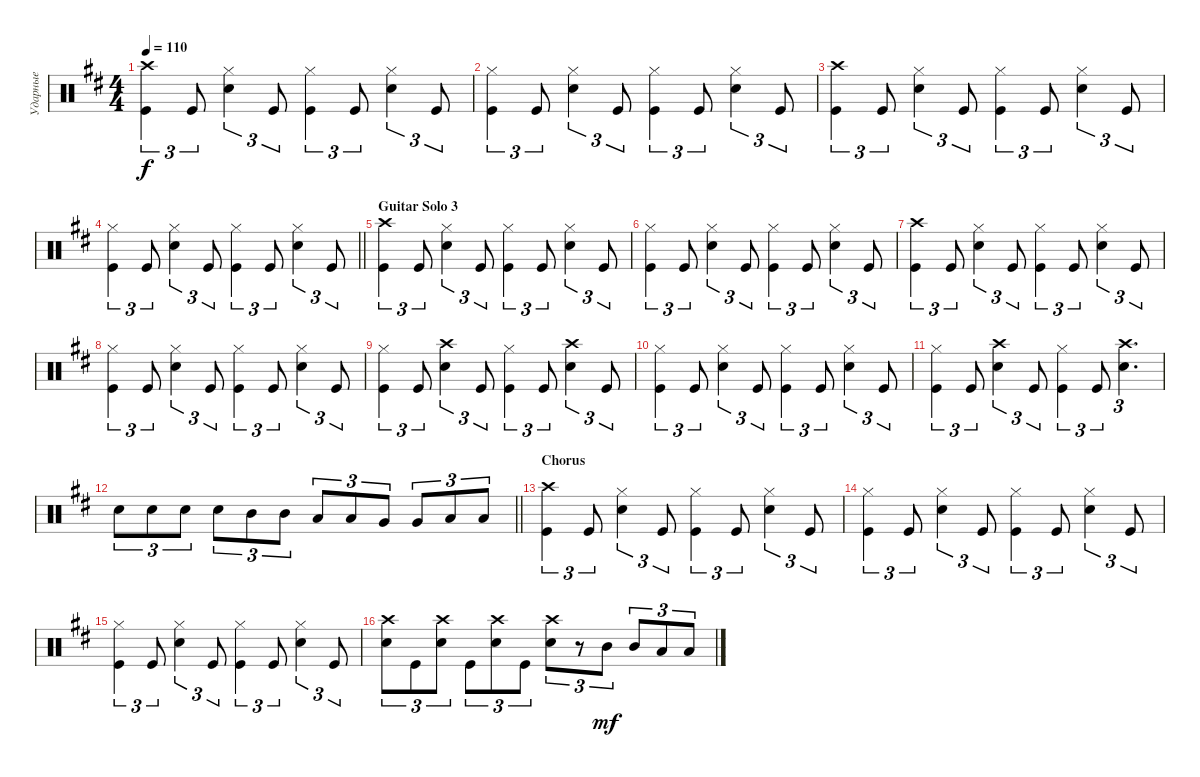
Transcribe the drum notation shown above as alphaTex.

\track ("Ударные" "Ударные") {instrument percussion}
\staff {score}
\articulation defaults
\ts (4 4)
\tempo 110
\clef neutral
\ks bminor
("Kick (hit)" "Crash high (hit)").4{tu (3 2) dy f} "Kick (hit)".8{tu (3 2)} ("Snare (hit) 2" "Hi-Hat (closed)").4{tu (3 2)} "Kick (hit)".8{tu (3 2)} ("Kick (hit)" "Hi-Hat (closed)").4{tu (3 2)} "Kick (hit)".8{tu (3 2)} ("Snare (hit) 2" "Hi-Hat (closed)").4{tu (3 2)} "Kick (hit)".8{tu (3 2)} |
("Kick (hit)" "Hi-Hat (closed)").4{tu (3 2)} "Kick (hit)".8{tu (3 2)} ("Snare (hit) 2" "Hi-Hat (closed)").4{tu (3 2)} "Kick (hit)".8{tu (3 2)} ("Kick (hit)" "Hi-Hat (closed)").4{tu (3 2)} "Kick (hit)".8{tu (3 2)} ("Snare (hit) 2" "Hi-Hat (closed)").4{tu (3 2)} "Kick (hit)".8{tu (3 2)} |
("Kick (hit)" "Crash high (hit)").4{tu (3 2)} "Kick (hit)".8{tu (3 2)} ("Snare (hit) 2" "Hi-Hat (closed)").4{tu (3 2)} "Kick (hit)".8{tu (3 2)} ("Kick (hit)" "Hi-Hat (closed)").4{tu (3 2)} "Kick (hit)".8{tu (3 2)} ("Snare (hit) 2" "Hi-Hat (closed)").4{tu (3 2)} "Kick (hit)".8{tu (3 2)} |
\barLineRight lightlight
("Kick (hit)" "Hi-Hat (closed)").4{tu (3 2)} "Kick (hit)".8{tu (3 2)} ("Snare (hit) 2" "Hi-Hat (closed)").4{tu (3 2)} "Kick (hit)".8{tu (3 2)} ("Kick (hit)" "Hi-Hat (closed)").4{tu (3 2)} "Kick (hit)".8{tu (3 2)} ("Snare (hit) 2" "Hi-Hat (closed)").4{tu (3 2)} "Kick (hit)".8{tu (3 2)} |
\section ("" "Guitar Solo 3")
("Kick (hit)" "Crash high (hit)").4{tu (3 2)} "Kick (hit)".8{tu (3 2)} ("Snare (hit) 2" "Hi-Hat (closed)").4{tu (3 2)} "Kick (hit)".8{tu (3 2)} ("Kick (hit)" "Hi-Hat (closed)").4{tu (3 2)} "Kick (hit)".8{tu (3 2)} ("Snare (hit) 2" "Hi-Hat (closed)").4{tu (3 2)} "Kick (hit)".8{tu (3 2)} |
("Kick (hit)" "Hi-Hat (closed)").4{tu (3 2)} "Kick (hit)".8{tu (3 2)} ("Snare (hit) 2" "Hi-Hat (closed)").4{tu (3 2)} "Kick (hit)".8{tu (3 2)} ("Kick (hit)" "Hi-Hat (closed)").4{tu (3 2)} "Kick (hit)".8{tu (3 2)} ("Snare (hit) 2" "Hi-Hat (closed)").4{tu (3 2)} "Kick (hit)".8{tu (3 2)} |
("Kick (hit)" "Crash high (hit)").4{tu (3 2)} "Kick (hit)".8{tu (3 2)} ("Snare (hit) 2" "Hi-Hat (closed)").4{tu (3 2)} "Kick (hit)".8{tu (3 2)} ("Kick (hit)" "Hi-Hat (closed)").4{tu (3 2)} "Kick (hit)".8{tu (3 2)} ("Snare (hit) 2" "Hi-Hat (closed)").4{tu (3 2)} "Kick (hit)".8{tu (3 2)} |
("Kick (hit)" "Hi-Hat (closed)").4{tu (3 2)} "Kick (hit)".8{tu (3 2)} ("Snare (hit) 2" "Hi-Hat (closed)").4{tu (3 2)} "Kick (hit)".8{tu (3 2)} ("Kick (hit)" "Hi-Hat (closed)").4{tu (3 2)} "Kick (hit)".8{tu (3 2)} ("Snare (hit) 2" "Hi-Hat (closed)").4{tu (3 2)} "Kick (hit)".8{tu (3 2)} |
("Kick (hit)" "Hi-Hat (closed)").4{tu (3 2)} "Kick (hit)".8{tu (3 2)} ("Snare (hit) 2" "Crash high (hit)").4{tu (3 2)} "Kick (hit)".8{tu (3 2)} ("Kick (hit)" "Hi-Hat (closed)").4{tu (3 2)} "Kick (hit)".8{tu (3 2)} ("Snare (hit) 2" "Crash high (hit)").4{tu (3 2)} "Kick (hit)".8{tu (3 2)} |
("Kick (hit)" "Hi-Hat (closed)").4{tu (3 2)} "Kick (hit)".8{tu (3 2)} ("Snare (hit) 2" "Hi-Hat (closed)").4{tu (3 2)} "Kick (hit)".8{tu (3 2)} ("Kick (hit)" "Hi-Hat (closed)").4{tu (3 2)} "Kick (hit)".8{tu (3 2)} ("Snare (hit) 2" "Hi-Hat (closed)").4{tu (3 2)} "Kick (hit)".8{tu (3 2)} |
("Kick (hit)" "Hi-Hat (closed)").4{tu (3 2)} "Kick (hit)".8{tu (3 2)} ("Snare (hit) 2" "Crash high (hit)").4{tu (3 2)} "Kick (hit)".8{tu (3 2)} ("Kick (hit)" "Hi-Hat (closed)").4{tu (3 2)} "Kick (hit)".8{tu (3 2)} ("Snare (hit) 2" "Crash high (hit)").4{d tu (3 2)} |
\barLineRight lightlight "Snare (hit) 2".8{tu (3 2)} "Snare (hit) 2".8{tu (3 2)} "Snare (hit) 2".8{tu (3 2)} "Snare (hit) 2".8{tu (3 2)} "Mid Tom (hit)".8{tu (3 2)} "Mid Tom (hit)".8{tu (3 2)} "Low Tom (hit)".8{tu (3 2)} "Low Tom (hit)".8{tu (3 2)} "Very Low Tom (hit)".8{tu (3 2)} "Very Low Tom (hit)".8{tu (3 2)} "Low Floor Tom (hit)".8{tu (3 2)} "Low Floor Tom (hit)".8{tu (3 2)}
|
\section ("" "Chorus")
("Kick (hit)" "Crash high (hit)").4{tu (3 2)} "Kick (hit)".8{tu (3 2)} ("Snare (hit) 2" "Hi-Hat (closed)").4{tu (3 2)} "Kick (hit)".8{tu (3 2)} ("Kick (hit)" "Hi-Hat (closed)").4{tu (3 2)} "Kick (hit)".8{tu (3 2)} ("Snare (hit) 2" "Hi-Hat (closed)").4{tu (3 2)} "Kick (hit)".8{tu (3 2)} |
("Kick (hit)" "Hi-Hat (closed)").4{tu (3 2)} "Kick (hit)".8{tu (3 2)} ("Snare (hit) 2" "Hi-Hat (closed)").4{tu (3 2)} "Kick (hit)".8{tu (3 2)} ("Kick (hit)" "Hi-Hat (closed)").4{tu (3 2)} "Kick (hit)".8{tu (3 2)} ("Snare (hit) 2" "Hi-Hat (closed)").4{tu (3 2)} "Kick (hit)".8{tu (3 2)} |
("Kick (hit)" "Hi-Hat (closed)").4{tu (3 2)} "Kick (hit)".8{tu (3 2)} ("Snare (hit) 2" "Hi-Hat (closed)").4{tu (3 2)} "Kick (hit)".8{tu (3 2)} ("Kick (hit)" "Hi-Hat (closed)").4{tu (3 2)} "Kick (hit)".8{tu (3 2)} ("Snare (hit) 2" "Hi-Hat (closed)").4{tu (3 2)} "Kick (hit)".8{tu (3 2)} |
("Snare (hit) 2" "Crash high (hit)").8{tu (3 2)} "Kick (hit)".8{tu (3 2)} ("Snare (hit) 2" "Crash high (hit)").8{tu (3 2)} "Kick (hit)".8{tu (3 2)} ("Snare (hit) 2" "Crash high (hit)").8{tu (3 2)} "Kick (hit)".8{tu (3 2)} ("Snare (hit) 2" "Crash high (hit)").8{tu (3 2)} r.8{tu (3 2)} "Mid Tom (hit)".8{tu (3 2) dy mf} "Mid Tom (hit)".8{tu (3 2)} "Low Tom (hit)".8{tu (3 2)} "Low Tom (hit)".8{tu (3 2)}
